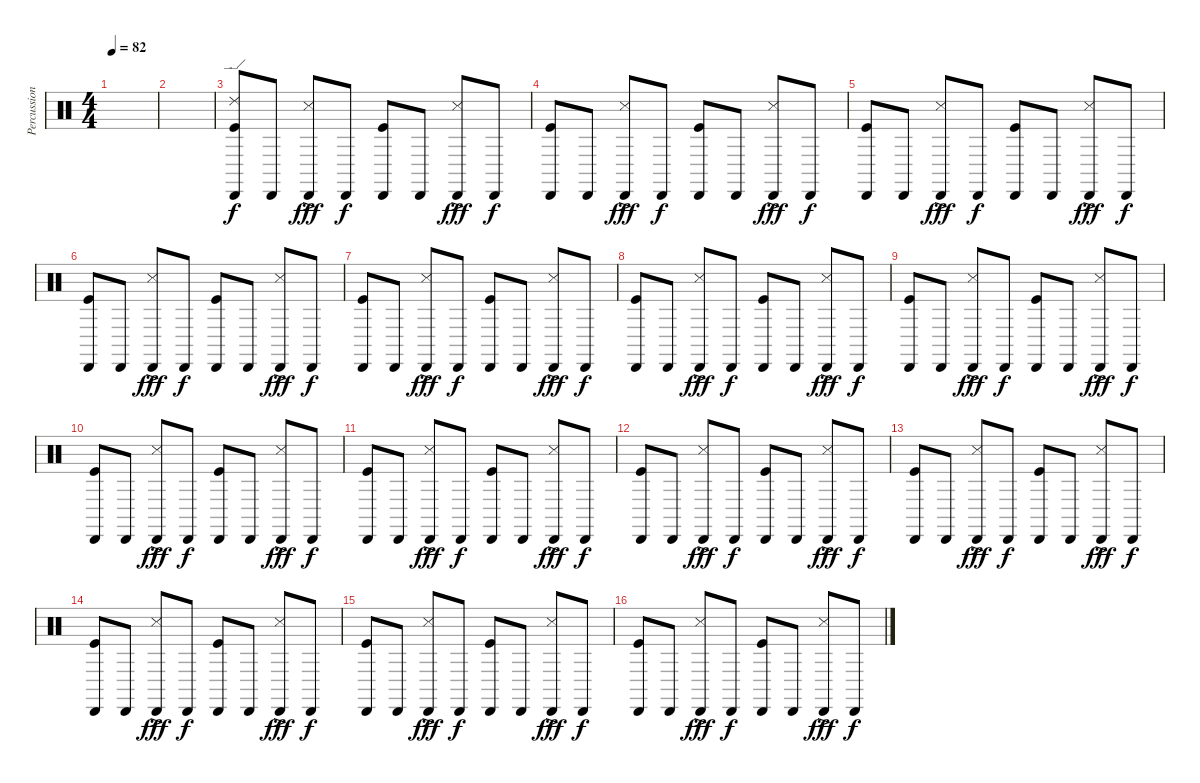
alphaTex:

\track ("Percussion" "Percussion") {instrument percussion}
\staff {score}
\articulation defaults
\ts (4 4)
\tempo 82
\clef neutral
\ks c
|
|
("Cabasa (hit)" "Ride (edge) 2" "Kick (hit)").8 "Cabasa (hit)".8 ("Cabasa (hit)" "Snare (side stick) 3"{ac}).8{dy fff} "Cabasa (hit)".8{dy f} ("Cabasa (hit)" "Kick (hit)").8 "Cabasa (hit)".8 ("Cabasa (hit)" "Snare (side stick) 3"{ac}).8{dy fff} "Cabasa (hit)".8{dy f} |
("Cabasa (hit)" "Kick (hit)").8 "Cabasa (hit)".8 ("Cabasa (hit)" "Snare (side stick) 3"{ac}).8{dy fff} "Cabasa (hit)".8{dy f} ("Cabasa (hit)" "Kick (hit)").8 "Cabasa (hit)".8 ("Cabasa (hit)" "Snare (side stick) 3"{ac}).8{dy fff} "Cabasa (hit)".8{dy f} |
("Cabasa (hit)" "Kick (hit)").8 "Cabasa (hit)".8 ("Cabasa (hit)" "Snare (side stick) 3"{ac}).8{dy fff} "Cabasa (hit)".8{dy f} ("Cabasa (hit)" "Kick (hit)").8 "Cabasa (hit)".8 ("Cabasa (hit)" "Snare (side stick) 3"{ac}).8{dy fff} "Cabasa (hit)".8{dy f} |
("Cabasa (hit)" "Kick (hit)").8 "Cabasa (hit)".8 ("Cabasa (hit)" "Snare (side stick) 3"{ac}).8{dy fff} "Cabasa (hit)".8{dy f} ("Cabasa (hit)" "Kick (hit)").8 "Cabasa (hit)".8 ("Cabasa (hit)" "Snare (side stick) 3"{ac}).8{dy fff} "Cabasa (hit)".8{dy f} |
("Cabasa (hit)" "Kick (hit)").8 "Cabasa (hit)".8 ("Cabasa (hit)" "Snare (side stick) 3"{ac}).8{dy fff} "Cabasa (hit)".8{dy f} ("Cabasa (hit)" "Kick (hit)").8 "Cabasa (hit)".8 ("Cabasa (hit)" "Snare (side stick) 3"{ac}).8{dy fff} "Cabasa (hit)".8{dy f} |
("Cabasa (hit)" "Kick (hit)").8 "Cabasa (hit)".8 ("Cabasa (hit)" "Snare (side stick) 3"{ac}).8{dy fff} "Cabasa (hit)".8{dy f} ("Cabasa (hit)" "Kick (hit)").8 "Cabasa (hit)".8 ("Cabasa (hit)" "Snare (side stick) 3"{ac}).8{dy fff} "Cabasa (hit)".8{dy f} |
("Cabasa (hit)" "Kick (hit)").8 "Cabasa (hit)".8 ("Cabasa (hit)" "Snare (side stick) 3"{ac}).8{dy fff} "Cabasa (hit)".8{dy f} ("Cabasa (hit)" "Kick (hit)").8 "Cabasa (hit)".8 ("Cabasa (hit)" "Snare (side stick) 3"{ac}).8{dy fff} "Cabasa (hit)".8{dy f} |
("Cabasa (hit)" "Kick (hit)").8 "Cabasa (hit)".8 ("Cabasa (hit)" "Snare (side stick) 3"{ac}).8{dy fff} "Cabasa (hit)".8{dy f} ("Cabasa (hit)" "Kick (hit)").8 "Cabasa (hit)".8 ("Cabasa (hit)" "Snare (side stick) 3"{ac}).8{dy fff} "Cabasa (hit)".8{dy f} |
("Cabasa (hit)" "Kick (hit)").8 "Cabasa (hit)".8 ("Cabasa (hit)" "Snare (side stick) 3"{ac}).8{dy fff} "Cabasa (hit)".8{dy f} ("Cabasa (hit)" "Kick (hit)").8 "Cabasa (hit)".8 ("Cabasa (hit)" "Snare (side stick) 3"{ac}).8{dy fff} "Cabasa (hit)".8{dy f} |
("Cabasa (hit)" "Kick (hit)").8 "Cabasa (hit)".8 ("Cabasa (hit)" "Snare (side stick) 3"{ac}).8{dy fff} "Cabasa (hit)".8{dy f} ("Cabasa (hit)" "Kick (hit)").8 "Cabasa (hit)".8 ("Cabasa (hit)" "Snare (side stick) 3"{ac}).8{dy fff} "Cabasa (hit)".8{dy f} |
("Cabasa (hit)" "Kick (hit)").8 "Cabasa (hit)".8 ("Cabasa (hit)" "Snare (side stick) 3"{ac}).8{dy fff} "Cabasa (hit)".8{dy f} ("Cabasa (hit)" "Kick (hit)").8 "Cabasa (hit)".8 ("Cabasa (hit)" "Snare (side stick) 3"{ac}).8{dy fff} "Cabasa (hit)".8{dy f} |
("Cabasa (hit)" "Kick (hit)").8 "Cabasa (hit)".8 ("Cabasa (hit)" "Snare (side stick) 3"{ac}).8{dy fff} "Cabasa (hit)".8{dy f} ("Cabasa (hit)" "Kick (hit)").8 "Cabasa (hit)".8 ("Cabasa (hit)" "Snare (side stick) 3"{ac}).8{dy fff} "Cabasa (hit)".8{dy f} |
("Cabasa (hit)" "Kick (hit)").8 "Cabasa (hit)".8 ("Cabasa (hit)" "Snare (side stick) 3"{ac}).8{dy fff} "Cabasa (hit)".8{dy f} ("Cabasa (hit)" "Kick (hit)").8 "Cabasa (hit)".8 ("Cabasa (hit)" "Snare (side stick) 3"{ac}).8{dy fff} "Cabasa (hit)".8{dy f} |
("Cabasa (hit)" "Kick (hit)").8 "Cabasa (hit)".8 ("Cabasa (hit)" "Snare (side stick) 3"{ac}).8{dy fff} "Cabasa (hit)".8{dy f} ("Cabasa (hit)" "Kick (hit)").8 "Cabasa (hit)".8 ("Cabasa (hit)" "Snare (side stick) 3"{ac}).8{dy fff} "Cabasa (hit)".8{dy f}
